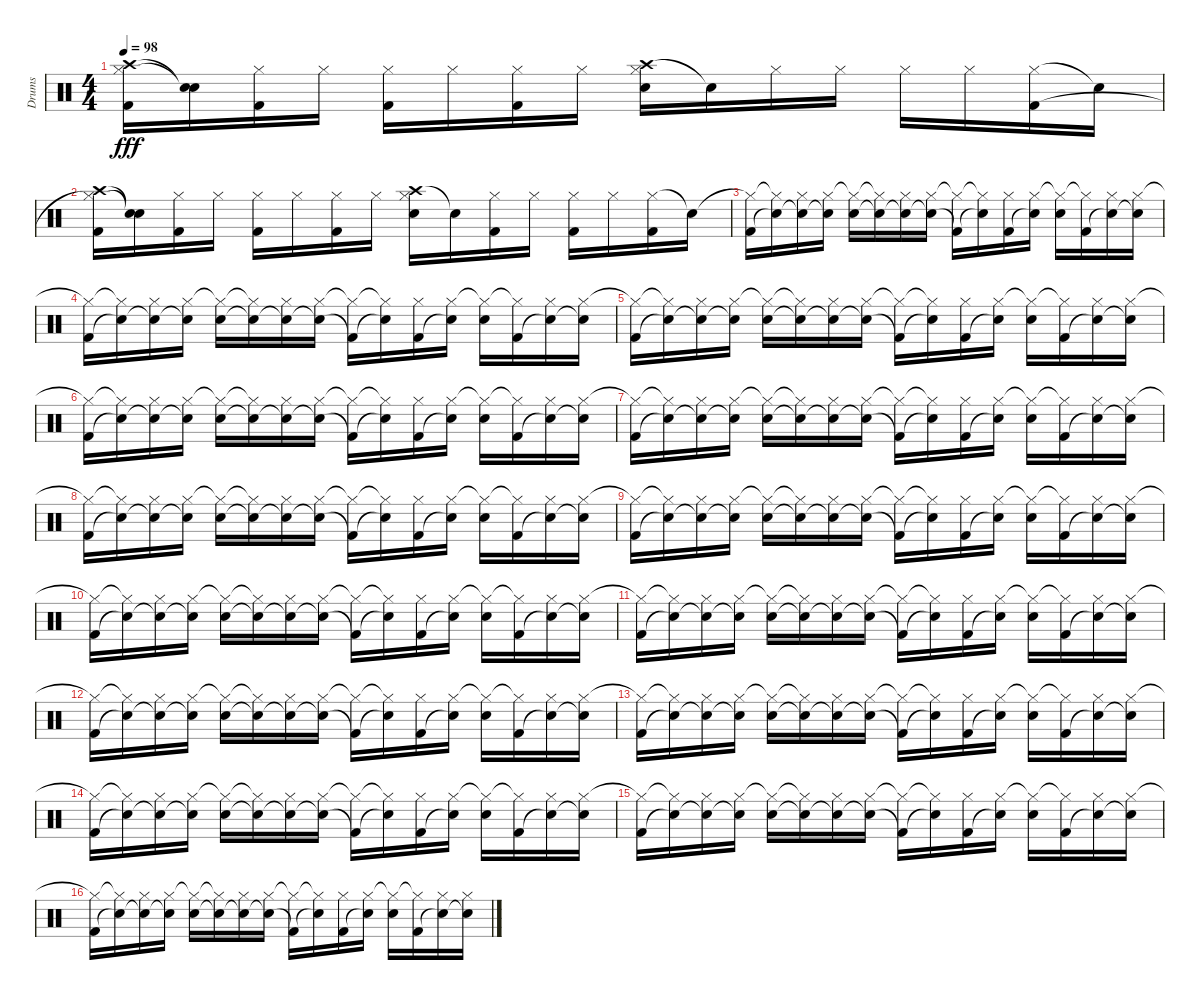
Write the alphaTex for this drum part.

\track ("Drums" "Drums") {instrument percussion}
\staff {score}
\articulation defaults
\ts (4 4)
\tempo 98
\clef neutral
\ks c
("Crash high (hit)" "Hi-Hat (closed)"{t} "Kick (hit) 2").16{dy fff} ("Snare (hit)"{t} "Snare (hit)"{t}).16 ("Hi-Hat (closed)" "Kick (hit) 2").16 "Hi-Hat (closed)".16 ("Hi-Hat (closed)" "Kick (hit) 2").16 "Hi-Hat (closed)".16 ("Hi-Hat (closed)" "Kick (hit) 2").16 "Hi-Hat (closed)".16 ("Crash high (hit)" "Hi-Hat (closed)" "Electric Snare (hit)").16 "Snare (hit)"{t}.16 "Hi-Hat (closed)".16 "Hi-Hat (closed)".16 "Hi-Hat (closed)".16 "Hi-Hat (closed)".16 ("Hi-Hat (closed)" "Kick (hit) 2").16 "Snare (hit)"{t}.16 |
("Crash high (hit)" "Hi-Hat (closed)"{t} "Kick (hit) 2").16 ("Snare (hit)"{t} "Snare (hit)"{t}).16 ("Hi-Hat (closed)" "Kick (hit) 2").16 "Hi-Hat (closed)".16 ("Hi-Hat (closed)" "Kick (hit) 2").16 "Hi-Hat (closed)".16 ("Hi-Hat (closed)" "Kick (hit) 2").16 "Hi-Hat (closed)".16 ("Crash high (hit)" "Hi-Hat (closed)" "Electric Snare (hit)").16 "Snare (hit)"{t}.16 ("Hi-Hat (closed)" "Kick (hit) 2").16 "Hi-Hat (closed)".16 ("Hi-Hat (closed)" "Kick (hit) 2").16 "Hi-Hat (closed)".16 ("Hi-Hat (closed)" "Kick (hit) 2").16 "Snare (hit)"{t}.16 |
("Hi-Hat (closed)"{t} "Kick (hit) 2").16 ("Hi-Hat (closed)"{t} "Snare (hit)"{t}).16 ("Hi-Hat (closed)" "Snare (hit)"{t}).16 ("Hi-Hat (closed)" "Snare (hit)"{t}).16 ("Hi-Hat (closed)"{t} "Electric Snare (hit)").16 ("Hi-Hat (closed)"{t} "Snare (hit)"{t}).16 ("Hi-Hat (closed)" "Snare (hit)"{t}).16 ("Hi-Hat (closed)" "Snare (hit)"{t}).16 ("Hi-Hat (closed)"{t} "Kick (hit) 2"{t}).16 ("Hi-Hat (closed)"{t} "Snare (hit)"{t}).16 ("Hi-Hat (closed)" "Kick (hit) 2").16 ("Hi-Hat (closed)" "Electric Snare (hit)"{t}).16 ("Hi-Hat (closed)"{t} "Electric Snare (hit)").16 ("Hi-Hat (closed)"{t} "Kick (hit) 2").16 ("Hi-Hat (closed)" "Electric Snare (hit)"{t}).16 ("Hi-Hat (closed)" "Snare (hit)"{t}).16 |
("Hi-Hat (closed)"{t} "Kick (hit) 2").16 ("Hi-Hat (closed)"{t} "Snare (hit)"{t}).16 ("Hi-Hat (closed)" "Snare (hit)"{t}).16 ("Hi-Hat (closed)" "Snare (hit)"{t}).16 ("Hi-Hat (closed)"{t} "Electric Snare (hit)").16 ("Hi-Hat (closed)"{t} "Snare (hit)"{t}).16 ("Hi-Hat (closed)" "Snare (hit)"{t}).16 ("Hi-Hat (closed)" "Snare (hit)"{t}).16 ("Hi-Hat (closed)"{t} "Kick (hit) 2"{t}).16 ("Hi-Hat (closed)"{t} "Snare (hit)"{t}).16 ("Hi-Hat (closed)" "Kick (hit) 2").16 ("Hi-Hat (closed)" "Electric Snare (hit)"{t}).16 ("Hi-Hat (closed)"{t} "Electric Snare (hit)").16 ("Hi-Hat (closed)"{t} "Kick (hit) 2").16 ("Hi-Hat (closed)" "Electric Snare (hit)"{t}).16 ("Hi-Hat (closed)" "Snare (hit)"{t}).16 |
("Hi-Hat (closed)"{t} "Kick (hit) 2").16 ("Hi-Hat (closed)"{t} "Snare (hit)"{t}).16 ("Hi-Hat (closed)" "Snare (hit)"{t}).16 ("Hi-Hat (closed)" "Snare (hit)"{t}).16 ("Hi-Hat (closed)"{t} "Electric Snare (hit)").16 ("Hi-Hat (closed)"{t} "Snare (hit)"{t}).16 ("Hi-Hat (closed)" "Snare (hit)"{t}).16 ("Hi-Hat (closed)" "Snare (hit)"{t}).16 ("Hi-Hat (closed)"{t} "Kick (hit) 2"{t}).16 ("Hi-Hat (closed)"{t} "Snare (hit)"{t}).16 ("Hi-Hat (closed)" "Kick (hit) 2").16 ("Hi-Hat (closed)" "Electric Snare (hit)"{t}).16 ("Hi-Hat (closed)"{t} "Electric Snare (hit)").16 ("Hi-Hat (closed)"{t} "Kick (hit) 2").16 ("Hi-Hat (closed)" "Electric Snare (hit)"{t}).16 ("Hi-Hat (closed)" "Snare (hit)"{t}).16 |
("Hi-Hat (closed)"{t} "Kick (hit) 2").16 ("Hi-Hat (closed)"{t} "Snare (hit)"{t}).16 ("Hi-Hat (closed)" "Snare (hit)"{t}).16 ("Hi-Hat (closed)" "Snare (hit)"{t}).16 ("Hi-Hat (closed)"{t} "Electric Snare (hit)").16 ("Hi-Hat (closed)"{t} "Snare (hit)"{t}).16 ("Hi-Hat (closed)" "Snare (hit)"{t}).16 ("Hi-Hat (closed)" "Snare (hit)"{t}).16 ("Hi-Hat (closed)"{t} "Kick (hit) 2"{t}).16 ("Hi-Hat (closed)"{t} "Snare (hit)"{t}).16 ("Hi-Hat (closed)" "Kick (hit) 2").16 ("Hi-Hat (closed)" "Electric Snare (hit)"{t}).16 ("Hi-Hat (closed)"{t} "Electric Snare (hit)").16 ("Hi-Hat (closed)"{t} "Kick (hit) 2").16 ("Hi-Hat (closed)" "Electric Snare (hit)"{t}).16 ("Hi-Hat (closed)" "Snare (hit)"{t}).16 |
("Hi-Hat (closed)"{t} "Kick (hit) 2").16 ("Hi-Hat (closed)"{t} "Snare (hit)"{t}).16 ("Hi-Hat (closed)" "Snare (hit)"{t}).16 ("Hi-Hat (closed)" "Snare (hit)"{t}).16 ("Hi-Hat (closed)"{t} "Electric Snare (hit)").16 ("Hi-Hat (closed)"{t} "Snare (hit)"{t}).16 ("Hi-Hat (closed)" "Snare (hit)"{t}).16 ("Hi-Hat (closed)" "Snare (hit)"{t}).16 ("Hi-Hat (closed)"{t} "Kick (hit) 2"{t}).16 ("Hi-Hat (closed)"{t} "Snare (hit)"{t}).16 ("Hi-Hat (closed)" "Kick (hit) 2").16 ("Hi-Hat (closed)" "Electric Snare (hit)"{t}).16 ("Hi-Hat (closed)"{t} "Electric Snare (hit)").16 ("Hi-Hat (closed)"{t} "Kick (hit) 2").16 ("Hi-Hat (closed)" "Electric Snare (hit)"{t}).16 ("Hi-Hat (closed)" "Snare (hit)"{t}).16 |
("Hi-Hat (closed)"{t} "Kick (hit) 2").16 ("Hi-Hat (closed)"{t} "Snare (hit)"{t}).16 ("Hi-Hat (closed)" "Snare (hit)"{t}).16 ("Hi-Hat (closed)" "Snare (hit)"{t}).16 ("Hi-Hat (closed)"{t} "Electric Snare (hit)").16 ("Hi-Hat (closed)"{t} "Snare (hit)"{t}).16 ("Hi-Hat (closed)" "Snare (hit)"{t}).16 ("Hi-Hat (closed)" "Snare (hit)"{t}).16 ("Hi-Hat (closed)"{t} "Kick (hit) 2"{t}).16 ("Hi-Hat (closed)"{t} "Snare (hit)"{t}).16 ("Hi-Hat (closed)" "Kick (hit) 2").16 ("Hi-Hat (closed)" "Electric Snare (hit)"{t}).16 ("Hi-Hat (closed)"{t} "Electric Snare (hit)").16 ("Hi-Hat (closed)"{t} "Kick (hit) 2").16 ("Hi-Hat (closed)" "Electric Snare (hit)"{t}).16 ("Hi-Hat (closed)" "Snare (hit)"{t}).16 |
("Hi-Hat (closed)"{t} "Kick (hit) 2").16 ("Hi-Hat (closed)"{t} "Snare (hit)"{t}).16 ("Hi-Hat (closed)" "Snare (hit)"{t}).16 ("Hi-Hat (closed)" "Snare (hit)"{t}).16 ("Hi-Hat (closed)"{t} "Electric Snare (hit)").16 ("Hi-Hat (closed)"{t} "Snare (hit)"{t}).16 ("Hi-Hat (closed)" "Snare (hit)"{t}).16 ("Hi-Hat (closed)" "Snare (hit)"{t}).16 ("Hi-Hat (closed)"{t} "Kick (hit) 2"{t}).16 ("Hi-Hat (closed)"{t} "Snare (hit)"{t}).16 ("Hi-Hat (closed)" "Kick (hit) 2").16 ("Hi-Hat (closed)" "Electric Snare (hit)"{t}).16 ("Hi-Hat (closed)"{t} "Electric Snare (hit)").16 ("Hi-Hat (closed)"{t} "Kick (hit) 2").16 ("Hi-Hat (closed)" "Electric Snare (hit)"{t}).16 ("Hi-Hat (closed)" "Snare (hit)"{t}).16 |
("Hi-Hat (closed)"{t} "Kick (hit) 2").16 ("Hi-Hat (closed)"{t} "Snare (hit)"{t}).16 ("Hi-Hat (closed)" "Snare (hit)"{t}).16 ("Hi-Hat (closed)" "Snare (hit)"{t}).16 ("Hi-Hat (closed)"{t} "Electric Snare (hit)").16 ("Hi-Hat (closed)"{t} "Snare (hit)"{t}).16 ("Hi-Hat (closed)" "Snare (hit)"{t}).16 ("Hi-Hat (closed)" "Snare (hit)"{t}).16 ("Hi-Hat (closed)"{t} "Kick (hit) 2"{t}).16 ("Hi-Hat (closed)"{t} "Snare (hit)"{t}).16 ("Hi-Hat (closed)" "Kick (hit) 2").16 ("Hi-Hat (closed)" "Electric Snare (hit)"{t}).16 ("Hi-Hat (closed)"{t} "Electric Snare (hit)").16 ("Hi-Hat (closed)"{t} "Kick (hit) 2").16 ("Hi-Hat (closed)" "Electric Snare (hit)"{t}).16 ("Hi-Hat (closed)" "Snare (hit)"{t}).16 |
("Hi-Hat (closed)"{t} "Kick (hit) 2").16 ("Hi-Hat (closed)"{t} "Snare (hit)"{t}).16 ("Hi-Hat (closed)" "Snare (hit)"{t}).16 ("Hi-Hat (closed)" "Snare (hit)"{t}).16 ("Hi-Hat (closed)"{t} "Electric Snare (hit)").16 ("Hi-Hat (closed)"{t} "Snare (hit)"{t}).16 ("Hi-Hat (closed)" "Snare (hit)"{t}).16 ("Hi-Hat (closed)" "Snare (hit)"{t}).16 ("Hi-Hat (closed)"{t} "Kick (hit) 2"{t}).16 ("Hi-Hat (closed)"{t} "Snare (hit)"{t}).16 ("Hi-Hat (closed)" "Kick (hit) 2").16 ("Hi-Hat (closed)" "Electric Snare (hit)"{t}).16 ("Hi-Hat (closed)"{t} "Electric Snare (hit)").16 ("Hi-Hat (closed)"{t} "Kick (hit) 2").16 ("Hi-Hat (closed)" "Electric Snare (hit)"{t}).16 ("Hi-Hat (closed)" "Snare (hit)"{t}).16 |
("Hi-Hat (closed)"{t} "Kick (hit) 2").16 ("Hi-Hat (closed)"{t} "Snare (hit)"{t}).16 ("Hi-Hat (closed)" "Snare (hit)"{t}).16 ("Hi-Hat (closed)" "Snare (hit)"{t}).16 ("Hi-Hat (closed)"{t} "Electric Snare (hit)").16 ("Hi-Hat (closed)"{t} "Snare (hit)"{t}).16 ("Hi-Hat (closed)" "Snare (hit)"{t}).16 ("Hi-Hat (closed)" "Snare (hit)"{t}).16 ("Hi-Hat (closed)"{t} "Kick (hit) 2"{t}).16 ("Hi-Hat (closed)"{t} "Snare (hit)"{t}).16 ("Hi-Hat (closed)" "Kick (hit) 2").16 ("Hi-Hat (closed)" "Electric Snare (hit)"{t}).16 ("Hi-Hat (closed)"{t} "Electric Snare (hit)").16 ("Hi-Hat (closed)"{t} "Kick (hit) 2").16 ("Hi-Hat (closed)" "Electric Snare (hit)"{t}).16 ("Hi-Hat (closed)" "Snare (hit)"{t}).16 |
("Hi-Hat (closed)"{t} "Kick (hit) 2").16 ("Hi-Hat (closed)"{t} "Snare (hit)"{t}).16 ("Hi-Hat (closed)" "Snare (hit)"{t}).16 ("Hi-Hat (closed)" "Snare (hit)"{t}).16 ("Hi-Hat (closed)"{t} "Electric Snare (hit)").16 ("Hi-Hat (closed)"{t} "Snare (hit)"{t}).16 ("Hi-Hat (closed)" "Snare (hit)"{t}).16 ("Hi-Hat (closed)" "Snare (hit)"{t}).16 ("Hi-Hat (closed)"{t} "Kick (hit) 2"{t}).16 ("Hi-Hat (closed)"{t} "Snare (hit)"{t}).16 ("Hi-Hat (closed)" "Kick (hit) 2").16 ("Hi-Hat (closed)" "Electric Snare (hit)"{t}).16 ("Hi-Hat (closed)"{t} "Electric Snare (hit)").16 ("Hi-Hat (closed)"{t} "Kick (hit) 2").16 ("Hi-Hat (closed)" "Electric Snare (hit)"{t}).16 ("Hi-Hat (closed)" "Snare (hit)"{t}).16 |
("Hi-Hat (closed)"{t} "Kick (hit) 2").16 ("Hi-Hat (closed)"{t} "Snare (hit)"{t}).16 ("Hi-Hat (closed)" "Snare (hit)"{t}).16 ("Hi-Hat (closed)" "Snare (hit)"{t}).16 ("Hi-Hat (closed)"{t} "Electric Snare (hit)").16 ("Hi-Hat (closed)"{t} "Snare (hit)"{t}).16 ("Hi-Hat (closed)" "Snare (hit)"{t}).16 ("Hi-Hat (closed)" "Snare (hit)"{t}).16 ("Hi-Hat (closed)"{t} "Kick (hit) 2"{t}).16 ("Hi-Hat (closed)"{t} "Snare (hit)"{t}).16 ("Hi-Hat (closed)" "Kick (hit) 2").16 ("Hi-Hat (closed)" "Electric Snare (hit)"{t}).16 ("Hi-Hat (closed)"{t} "Electric Snare (hit)").16 ("Hi-Hat (closed)"{t} "Kick (hit) 2").16 ("Hi-Hat (closed)" "Electric Snare (hit)"{t}).16 ("Hi-Hat (closed)" "Snare (hit)"{t}).16 |
("Hi-Hat (closed)"{t} "Kick (hit) 2").16 ("Hi-Hat (closed)"{t} "Snare (hit)"{t}).16 ("Hi-Hat (closed)" "Snare (hit)"{t}).16 ("Hi-Hat (closed)" "Snare (hit)"{t}).16 ("Hi-Hat (closed)"{t} "Electric Snare (hit)").16 ("Hi-Hat (closed)"{t} "Snare (hit)"{t}).16 ("Hi-Hat (closed)" "Snare (hit)"{t}).16 ("Hi-Hat (closed)" "Snare (hit)"{t}).16 ("Hi-Hat (closed)"{t} "Kick (hit) 2"{t}).16 ("Hi-Hat (closed)"{t} "Snare (hit)"{t}).16 ("Hi-Hat (closed)" "Kick (hit) 2").16 ("Hi-Hat (closed)" "Electric Snare (hit)"{t}).16 ("Hi-Hat (closed)"{t} "Electric Snare (hit)").16 ("Hi-Hat (closed)"{t} "Kick (hit) 2").16 ("Hi-Hat (closed)" "Electric Snare (hit)"{t}).16 ("Hi-Hat (closed)" "Snare (hit)"{t}).16 |
("Hi-Hat (closed)"{t} "Kick (hit) 2").16 ("Hi-Hat (closed)"{t} "Snare (hit)"{t}).16 ("Hi-Hat (closed)" "Snare (hit)"{t}).16 ("Hi-Hat (closed)" "Snare (hit)"{t}).16 ("Hi-Hat (closed)"{t} "Electric Snare (hit)").16 ("Hi-Hat (closed)"{t} "Snare (hit)"{t}).16 ("Hi-Hat (closed)" "Snare (hit)"{t}).16 ("Hi-Hat (closed)" "Snare (hit)"{t}).16 ("Hi-Hat (closed)"{t} "Kick (hit) 2"{t}).16 ("Hi-Hat (closed)"{t} "Snare (hit)"{t}).16 ("Hi-Hat (closed)" "Kick (hit) 2").16 ("Hi-Hat (closed)" "Electric Snare (hit)"{t}).16 ("Hi-Hat (closed)"{t} "Electric Snare (hit)").16 ("Hi-Hat (closed)"{t} "Kick (hit) 2").16 ("Hi-Hat (closed)" "Electric Snare (hit)"{t}).16 ("Hi-Hat (closed)" "Snare (hit)"{t}).16
